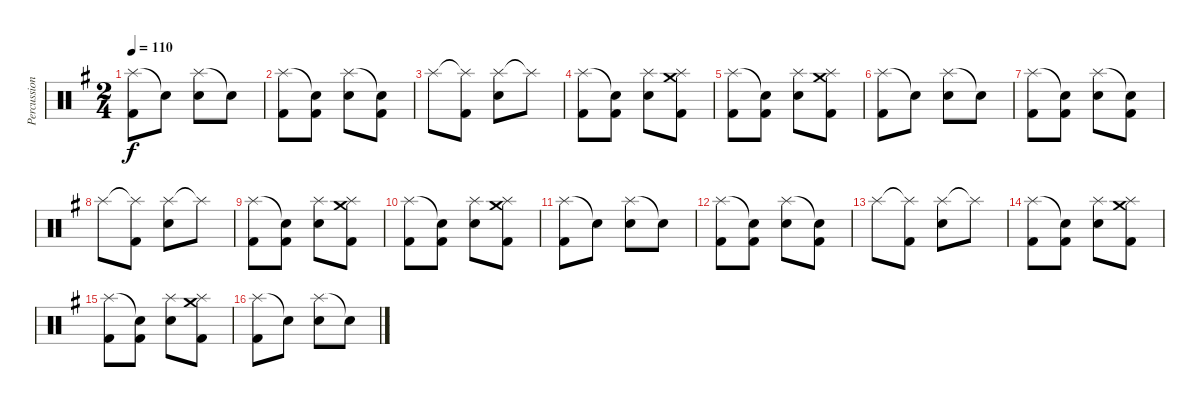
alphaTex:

\track ("Percussion" "Percussion") {instrument percussion}
\staff {score}
\articulation defaults
\ts (2 4)
\tempo 110
\clef neutral
\ks g
("Splash (hit)" "Kick (hit) 2").8{dy f} "Snare (hit)"{t}.8 ("Splash (hit)" "Electric Snare (hit)").8 "Snare (hit)"{t}.8 |
("Splash (hit)" "Kick (hit) 2").8 ("Snare (hit)"{t} "Kick (hit) 2").8 ("Splash (hit)" "Electric Snare (hit)").8 ("Snare (hit)"{t} "Kick (hit) 2").8 |
"Splash (hit)".8 ("Splash (hit)"{t} "Kick (hit) 2").8 ("Splash (hit)" "Electric Snare (hit)").8 "Splash (hit)"{t}.8 |
("Splash (hit)" "Kick (hit) 2").8 ("Snare (hit)"{t} "Kick (hit) 2").8 ("Splash (hit)" "Electric Snare (hit)").8 ("Crash medium (hit)" "Splash (hit)" "Kick (hit) 2").8 |
("Splash (hit)" "Kick (hit) 2").8 ("Snare (hit)"{t} "Kick (hit) 2").8 ("Splash (hit)" "Electric Snare (hit)").8 ("Crash medium (hit)" "Splash (hit)" "Kick (hit) 2").8 |
("Splash (hit)" "Kick (hit) 2").8 "Snare (hit)"{t}.8 ("Splash (hit)" "Electric Snare (hit)").8 "Snare (hit)"{t}.8 |
("Splash (hit)" "Kick (hit) 2").8 ("Snare (hit)"{t} "Kick (hit) 2").8 ("Splash (hit)" "Electric Snare (hit)").8 ("Snare (hit)"{t} "Kick (hit) 2").8 |
"Splash (hit)".8 ("Splash (hit)"{t} "Kick (hit) 2").8 ("Splash (hit)" "Electric Snare (hit)").8 "Splash (hit)"{t}.8 |
("Splash (hit)" "Kick (hit) 2").8 ("Snare (hit)"{t} "Kick (hit) 2").8 ("Splash (hit)" "Electric Snare (hit)").8 ("Crash medium (hit)" "Splash (hit)" "Kick (hit) 2").8 |
("Splash (hit)" "Kick (hit) 2").8 ("Snare (hit)"{t} "Kick (hit) 2").8 ("Splash (hit)" "Electric Snare (hit)").8 ("Crash medium (hit)" "Splash (hit)" "Kick (hit) 2").8 |
("Splash (hit)" "Kick (hit) 2").8 "Snare (hit)"{t}.8 ("Splash (hit)" "Electric Snare (hit)").8 "Snare (hit)"{t}.8 |
("Splash (hit)" "Kick (hit) 2").8 ("Snare (hit)"{t} "Kick (hit) 2").8 ("Splash (hit)" "Electric Snare (hit)").8 ("Snare (hit)"{t} "Kick (hit) 2").8 |
"Splash (hit)".8 ("Splash (hit)"{t} "Kick (hit) 2").8 ("Splash (hit)" "Electric Snare (hit)").8 "Splash (hit)"{t}.8 |
("Splash (hit)" "Kick (hit) 2").8 ("Snare (hit)"{t} "Kick (hit) 2").8 ("Splash (hit)" "Electric Snare (hit)").8 ("Crash medium (hit)" "Splash (hit)" "Kick (hit) 2").8 |
("Splash (hit)" "Kick (hit) 2").8 ("Snare (hit)"{t} "Kick (hit) 2").8 ("Splash (hit)" "Electric Snare (hit)").8 ("Crash medium (hit)" "Splash (hit)" "Kick (hit) 2").8 |
("Splash (hit)" "Kick (hit) 2").8 "Snare (hit)"{t}.8 ("Splash (hit)" "Electric Snare (hit)").8 "Snare (hit)"{t}.8
